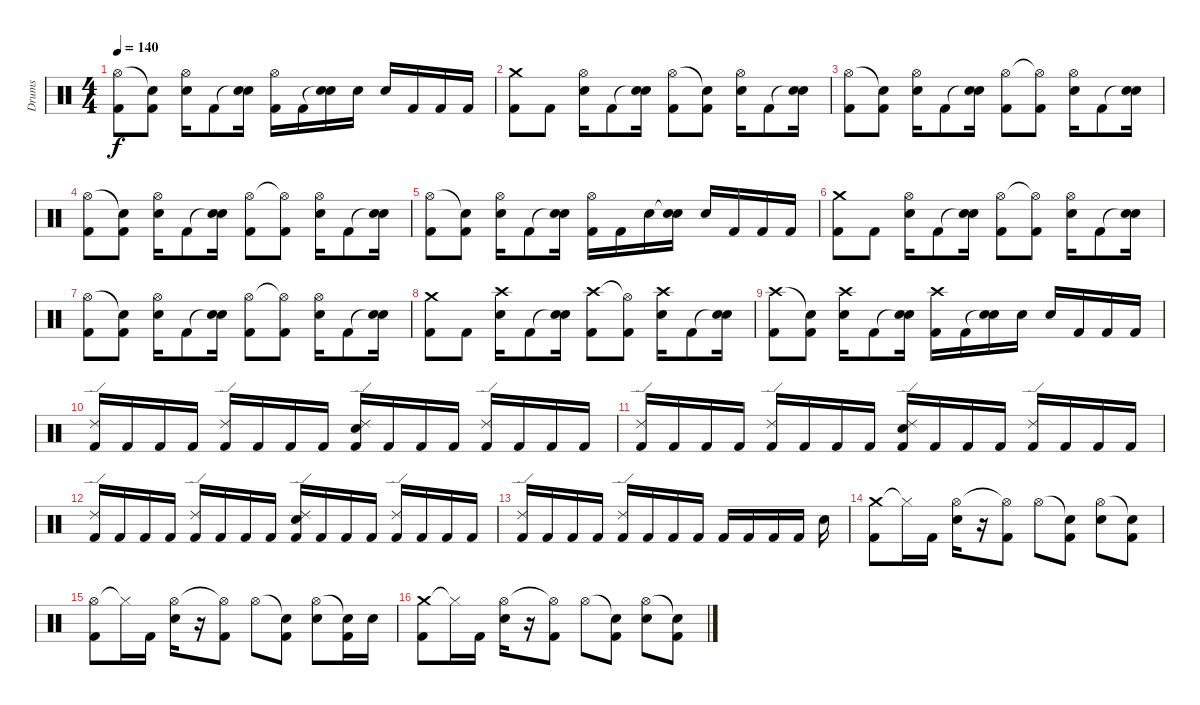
\track ("Drums" "Drums") {instrument percussion}
\staff {score}
\articulation defaults
\ts (4 4)
\tempo 140
\clef neutral
\ks c
("Hi-Hat (open)" "Kick (hit) 2").8{dy f} ("Snare (hit)"{t} "Kick (hit) 2").8 ("Hi-Hat (open)" "Electric Snare (hit)").16 "Kick (hit) 2".8 ("Snare (hit)"{t} "Electric Snare (hit)").16 ("Hi-Hat (open)" "Kick (hit) 2").16 "Kick (hit) 2".16 ("Snare (hit)"{t} "Electric Snare (hit)").16 "Electric Snare (hit)".16 "Electric Snare (hit)".16 "Kick (hit) 2".16 "Kick (hit) 2".16 "Kick (hit) 2".16 |
("Crash medium (hit)" "Kick (hit) 2").8 "Kick (hit) 2".8 ("Hi-Hat (open)" "Electric Snare (hit)").16 "Kick (hit) 2".8 ("Snare (hit)"{t} "Electric Snare (hit)").16 ("Hi-Hat (open)" "Kick (hit) 2").8 ("Snare (hit)"{t} "Kick (hit) 2").8 ("Hi-Hat (open)" "Electric Snare (hit)").16 "Kick (hit) 2".8 ("Snare (hit)"{t} "Electric Snare (hit)").16 |
("Hi-Hat (open)" "Kick (hit) 2").8 ("Snare (hit)"{t} "Kick (hit) 2").8 ("Hi-Hat (open)" "Electric Snare (hit)").16 "Kick (hit) 2".8 ("Snare (hit)"{t} "Electric Snare (hit)").16 ("Hi-Hat (open)" "Kick (hit) 2").8 ("Hi-Hat (open)"{t} "Kick (hit) 2").8 ("Hi-Hat (open)" "Electric Snare (hit)").16 "Kick (hit) 2".8 ("Snare (hit)"{t} "Electric Snare (hit)").16 |
("Hi-Hat (open)" "Kick (hit) 2").8 ("Snare (hit)"{t} "Kick (hit) 2").8 ("Hi-Hat (open)" "Electric Snare (hit)").16 "Kick (hit) 2".8 ("Snare (hit)"{t} "Electric Snare (hit)").16 ("Hi-Hat (open)" "Kick (hit) 2").8 ("Hi-Hat (open)"{t} "Kick (hit) 2").8 ("Hi-Hat (open)" "Electric Snare (hit)").16 "Kick (hit) 2".8 ("Snare (hit)"{t} "Electric Snare (hit)").16 |
("Hi-Hat (open)" "Kick (hit) 2").8 ("Snare (hit)"{t} "Kick (hit) 2").8 ("Hi-Hat (open)" "Electric Snare (hit)").16 "Kick (hit) 2".8 ("Snare (hit)"{t} "Electric Snare (hit)").16 ("Hi-Hat (open)" "Kick (hit) 2").16 "Kick (hit) 2".16 "Electric Snare (hit)".16 ("Snare (hit)"{t} "Electric Snare (hit)").16 "Electric Snare (hit)".16 "Kick (hit) 2".16 "Kick (hit) 2".16 "Kick (hit) 2".16 |
("Crash medium (hit)" "Kick (hit) 2").8 "Kick (hit) 2".8 ("Hi-Hat (open)" "Electric Snare (hit)").16 "Kick (hit) 2".8 ("Snare (hit)"{t} "Electric Snare (hit)").16 ("Hi-Hat (open)" "Kick (hit) 2").8 ("Hi-Hat (open)"{t} "Kick (hit) 2").8 ("Hi-Hat (open)" "Electric Snare (hit)").16 "Kick (hit) 2".8 ("Snare (hit)"{t} "Electric Snare (hit)").16 |
("Hi-Hat (open)" "Kick (hit) 2").8 ("Snare (hit)"{t} "Kick (hit) 2").8 ("Hi-Hat (open)" "Electric Snare (hit)").16 "Kick (hit) 2".8 ("Snare (hit)"{t} "Electric Snare (hit)").16 ("Hi-Hat (open)" "Kick (hit) 2").8 ("Hi-Hat (open)"{t} "Kick (hit) 2").8 ("Hi-Hat (open)" "Electric Snare (hit)").16 "Kick (hit) 2".8 ("Snare (hit)"{t} "Electric Snare (hit)").16 |
("Crash medium (hit)" "Kick (hit) 2").8 "Kick (hit) 2".8 ("Crash high (hit)" "Electric Snare (hit)").16 "Kick (hit) 2".8 ("Snare (hit)"{t} "Electric Snare (hit)").16 ("Crash high (hit)" "Kick (hit) 2").8 ("Hi-Hat (open)"{t} "Kick (hit) 2").8 ("Crash high (hit)" "Electric Snare (hit)").16 "Kick (hit) 2".8 ("Snare (hit)"{t} "Electric Snare (hit)").16 |
("Crash high (hit)" "Kick (hit) 2").8 ("Snare (hit)"{t} "Kick (hit) 2").8 ("Crash high (hit)" "Electric Snare (hit)").16 "Kick (hit) 2".8 ("Snare (hit)"{t} "Electric Snare (hit)").16 ("Crash high (hit)" "Kick (hit) 2").16 "Kick (hit) 2".16 ("Snare (hit)"{t} "Electric Snare (hit)").16 "Electric Snare (hit)".16 "Electric Snare (hit)".16 "Kick (hit) 2".16 "Kick (hit) 2".16 "Kick (hit) 2".16 |
("Ride (edge) 2" "Kick (hit) 2").16 "Kick (hit) 2".16 "Kick (hit) 2".16 "Kick (hit) 2".16 ("Ride (edge) 2" "Kick (hit) 2").16 "Kick (hit) 2".16 "Kick (hit) 2".16 "Kick (hit) 2".16 ("Ride (edge) 2" "Electric Snare (hit)" "Kick (hit) 2").16 "Kick (hit) 2".16 "Kick (hit) 2".16 "Kick (hit) 2".16 ("Ride (edge) 2" "Kick (hit) 2").16 "Kick (hit) 2".16 "Kick (hit) 2".16 "Kick (hit) 2".16 |
("Ride (edge) 2" "Kick (hit) 2").16 "Kick (hit) 2".16 "Kick (hit) 2".16 "Kick (hit) 2".16 ("Ride (edge) 2" "Kick (hit) 2").16 "Kick (hit) 2".16 "Kick (hit) 2".16 "Kick (hit) 2".16 ("Ride (edge) 2" "Electric Snare (hit)" "Kick (hit) 2").16 "Kick (hit) 2".16 "Kick (hit) 2".16 "Kick (hit) 2".16 ("Ride (edge) 2" "Kick (hit) 2").16 "Kick (hit) 2".16 "Kick (hit) 2".16 "Kick (hit) 2".16 |
("Ride (edge) 2" "Kick (hit) 2").16 "Kick (hit) 2".16 "Kick (hit) 2".16 "Kick (hit) 2".16 ("Ride (edge) 2" "Kick (hit) 2").16 "Kick (hit) 2".16 "Kick (hit) 2".16 "Kick (hit) 2".16 ("Ride (edge) 2" "Electric Snare (hit)" "Kick (hit) 2").16 "Kick (hit) 2".16 "Kick (hit) 2".16 "Kick (hit) 2".16 ("Ride (edge) 2" "Kick (hit) 2").16 "Kick (hit) 2".16 "Kick (hit) 2".16 "Kick (hit) 2".16 |
("Ride (edge) 2" "Kick (hit) 2").16 "Kick (hit) 2".16 "Kick (hit) 2".16 "Kick (hit) 2".16 ("Ride (edge) 2" "Kick (hit) 2").16 "Kick (hit) 2".16 "Kick (hit) 2".16 "Kick (hit) 2".16 "Kick (hit) 2".16 "Kick (hit) 2".16 "Kick (hit) 2".16 "Kick (hit) 2".16 "Electric Snare (hit)".16 |
("Crash medium (hit)" "Kick (hit) 2").8 "Hi-Hat (closed)"{t}.16 "Kick (hit) 2".16 ("Hi-Hat (open)" "Electric Snare (hit)").16 r.16 ("Hi-Hat (open)"{t} "Kick (hit) 2").8 "Hi-Hat (open)".8 ("Snare (hit)"{t} "Kick (hit) 2").8 ("Hi-Hat (open)" "Electric Snare (hit)").8 ("Snare (hit)"{t} "Kick (hit) 2").8 |
("Hi-Hat (open)" "Kick (hit) 2").8 "Hi-Hat (closed)"{t}.16 "Kick (hit) 2".16 ("Hi-Hat (open)" "Electric Snare (hit)").16 r.16 ("Hi-Hat (open)"{t} "Kick (hit) 2").8 "Hi-Hat (open)".8 ("Snare (hit)"{t} "Kick (hit) 2").8 ("Hi-Hat (open)" "Electric Snare (hit)").8 ("Snare (hit)"{t} "Kick (hit) 2").16 "Electric Snare (hit)".16 |
("Crash medium (hit)" "Kick (hit) 2").8 "Hi-Hat (closed)"{t}.16 "Kick (hit) 2".16 ("Hi-Hat (open)" "Electric Snare (hit)").16 r.16 ("Hi-Hat (open)"{t} "Kick (hit) 2").8 "Hi-Hat (open)".8 ("Snare (hit)"{t} "Kick (hit) 2").8 ("Hi-Hat (open)" "Electric Snare (hit)").8 ("Snare (hit)"{t} "Kick (hit) 2").8
